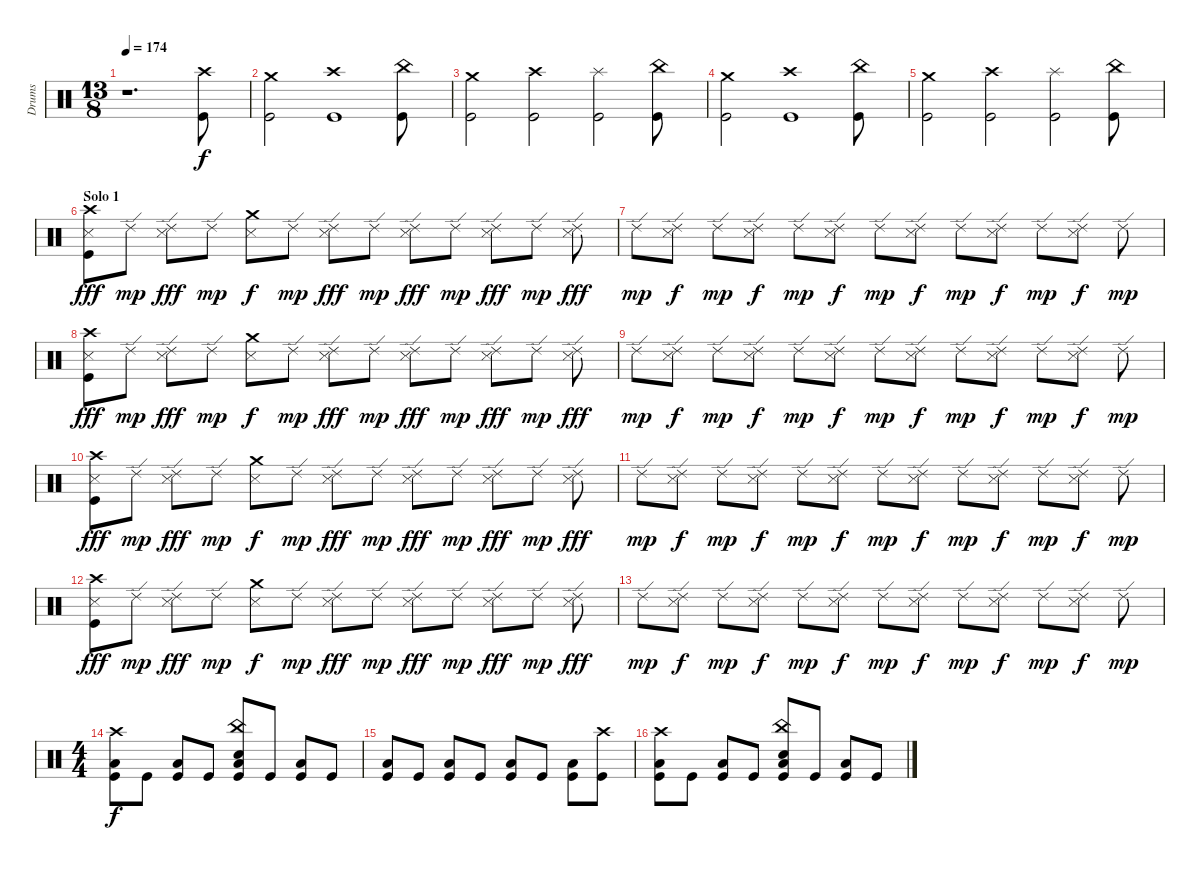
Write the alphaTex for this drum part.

\track ("Drums" "Drums") {instrument percussion}
\staff {score}
\articulation defaults
\ts (13 8)
\tempo 174
\clef neutral
\ks c
r.1{d dy f} ("Crash high (hit)" "Kick (hit)").8 |
("Crash medium (hit)" "Kick (hit)").2 ("Crash high (hit)" "Kick (hit)").1 ("China (hit)" "Kick (hit)").8 |
("Crash medium (hit)" "Kick (hit)").2 ("Crash high (hit)" "Kick (hit)").2 ("Splash (hit)" "Kick (hit)").2 ("China (hit)" "Kick (hit)").8 |
("Crash medium (hit)" "Kick (hit)").2 ("Crash high (hit)" "Kick (hit)").1 ("China (hit)" "Kick (hit)").8 |
("Crash medium (hit)" "Kick (hit)").2 ("Crash high (hit)" "Kick (hit)").2 ("Splash (hit)" "Kick (hit)").2 ("China (hit)" "Kick (hit)").8 |
\section ("" "Solo 1")
("Metronome (hit)" "Crash high (hit)" "Kick (hit)").8{dy fff} "Ride (edge) 2".8{dy mp} ("Metronome (hit)" "Ride (edge) 2").8{dy fff} "Ride (edge) 2".8{dy mp} ("Metronome (hit)" "Crash medium (hit)").8{dy f} "Ride (edge) 2".8{dy mp} ("Metronome (hit)" "Ride (edge) 2").8{dy fff} "Ride (edge) 2".8{dy mp} ("Metronome (hit)" "Ride (edge) 2").8{dy fff} "Ride (edge) 2".8{dy mp} ("Metronome (hit)" "Ride (edge) 2").8{dy fff} "Ride (edge) 2".8{dy mp} ("Metronome (hit)" "Ride (edge) 2").8{dy fff} |
"Ride (edge) 2".8{dy mp} ("Metronome (hit)" "Ride (edge) 2").8{dy f} "Ride (edge) 2".8{dy mp} ("Metronome (hit)" "Ride (edge) 2").8{dy f} "Ride (edge) 2".8{dy mp} ("Metronome (hit)" "Ride (edge) 2").8{dy f} "Ride (edge) 2".8{dy mp} ("Metronome (hit)" "Ride (edge) 2").8{dy f} "Ride (edge) 2".8{dy mp} ("Metronome (hit)" "Ride (edge) 2").8{dy f} "Ride (edge) 2".8{dy mp} ("Metronome (hit)" "Ride (edge) 2").8{dy f} "Ride (edge) 2".8{dy mp} |
("Metronome (hit)" "Crash high (hit)" "Kick (hit)").8{dy fff} "Ride (edge) 2".8{dy mp} ("Metronome (hit)" "Ride (edge) 2").8{dy fff} "Ride (edge) 2".8{dy mp} ("Metronome (hit)" "Crash medium (hit)").8{dy f} "Ride (edge) 2".8{dy mp} ("Metronome (hit)" "Ride (edge) 2").8{dy fff} "Ride (edge) 2".8{dy mp} ("Metronome (hit)" "Ride (edge) 2").8{dy fff} "Ride (edge) 2".8{dy mp} ("Metronome (hit)" "Ride (edge) 2").8{dy fff} "Ride (edge) 2".8{dy mp} ("Metronome (hit)" "Ride (edge) 2").8{dy fff} |
"Ride (edge) 2".8{dy mp} ("Metronome (hit)" "Ride (edge) 2").8{dy f} "Ride (edge) 2".8{dy mp} ("Metronome (hit)" "Ride (edge) 2").8{dy f} "Ride (edge) 2".8{dy mp} ("Metronome (hit)" "Ride (edge) 2").8{dy f} "Ride (edge) 2".8{dy mp} ("Metronome (hit)" "Ride (edge) 2").8{dy f} "Ride (edge) 2".8{dy mp} ("Metronome (hit)" "Ride (edge) 2").8{dy f} "Ride (edge) 2".8{dy mp} ("Metronome (hit)" "Ride (edge) 2").8{dy f} "Ride (edge) 2".8{dy mp} |
("Metronome (hit)" "Crash high (hit)" "Kick (hit)").8{dy fff} "Ride (edge) 2".8{dy mp} ("Metronome (hit)" "Ride (edge) 2").8{dy fff} "Ride (edge) 2".8{dy mp} ("Metronome (hit)" "Crash medium (hit)").8{dy f} "Ride (edge) 2".8{dy mp} ("Metronome (hit)" "Ride (edge) 2").8{dy fff} "Ride (edge) 2".8{dy mp} ("Metronome (hit)" "Ride (edge) 2").8{dy fff} "Ride (edge) 2".8{dy mp} ("Metronome (hit)" "Ride (edge) 2").8{dy fff} "Ride (edge) 2".8{dy mp} ("Metronome (hit)" "Ride (edge) 2").8{dy fff} |
"Ride (edge) 2".8{dy mp} ("Metronome (hit)" "Ride (edge) 2").8{dy f} "Ride (edge) 2".8{dy mp} ("Metronome (hit)" "Ride (edge) 2").8{dy f} "Ride (edge) 2".8{dy mp} ("Metronome (hit)" "Ride (edge) 2").8{dy f} "Ride (edge) 2".8{dy mp} ("Metronome (hit)" "Ride (edge) 2").8{dy f} "Ride (edge) 2".8{dy mp} ("Metronome (hit)" "Ride (edge) 2").8{dy f} "Ride (edge) 2".8{dy mp} ("Metronome (hit)" "Ride (edge) 2").8{dy f} "Ride (edge) 2".8{dy mp} |
("Metronome (hit)" "Crash high (hit)" "Kick (hit)").8{dy fff} "Ride (edge) 2".8{dy mp} ("Metronome (hit)" "Ride (edge) 2").8{dy fff} "Ride (edge) 2".8{dy mp} ("Metronome (hit)" "Crash medium (hit)").8{dy f} "Ride (edge) 2".8{dy mp} ("Metronome (hit)" "Ride (edge) 2").8{dy fff} "Ride (edge) 2".8{dy mp} ("Metronome (hit)" "Ride (edge) 2").8{dy fff} "Ride (edge) 2".8{dy mp} ("Metronome (hit)" "Ride (edge) 2").8{dy fff} "Ride (edge) 2".8{dy mp} ("Metronome (hit)" "Ride (edge) 2").8{dy fff} |
"Ride (edge) 2".8{dy mp} ("Metronome (hit)" "Ride (edge) 2").8{dy f} "Ride (edge) 2".8{dy mp} ("Metronome (hit)" "Ride (edge) 2").8{dy f} "Ride (edge) 2".8{dy mp} ("Metronome (hit)" "Ride (edge) 2").8{dy f} "Ride (edge) 2".8{dy mp} ("Metronome (hit)" "Ride (edge) 2").8{dy f} "Ride (edge) 2".8{dy mp} ("Metronome (hit)" "Ride (edge) 2").8{dy f} "Ride (edge) 2".8{dy mp} ("Metronome (hit)" "Ride (edge) 2").8{dy f} "Ride (edge) 2".8{dy mp} |
\ts (4 4)
("Crash high (hit)" "Low Floor Tom (hit)" "Kick (hit)").8{dy f} "Kick (hit)".8 ("Low Floor Tom (hit)" "Kick (hit)").8 "Kick (hit)".8 ("China (hit)" "Low Floor Tom (hit)" "Electric Snare (hit)" "Kick (hit)").8 "Kick (hit)".8 ("Low Floor Tom (hit)" "Kick (hit)").8 "Kick (hit)".8 |
("Low Floor Tom (hit)" "Kick (hit)").8 "Kick (hit)".8 ("Low Floor Tom (hit)" "Kick (hit)").8 "Kick (hit)".8 ("Low Floor Tom (hit)" "Kick (hit)").8 "Kick (hit)".8 ("Low Floor Tom (hit)" "Kick (hit)").8 ("Crash high (hit)" "Kick (hit)").8 |
("Crash high (hit)" "Low Floor Tom (hit)" "Kick (hit)").8 "Kick (hit)".8 ("Low Floor Tom (hit)" "Kick (hit)").8 "Kick (hit)".8 ("China (hit)" "Low Floor Tom (hit)" "Electric Snare (hit)" "Kick (hit)").8 "Kick (hit)".8 ("Low Floor Tom (hit)" "Kick (hit)").8 "Kick (hit)".8
